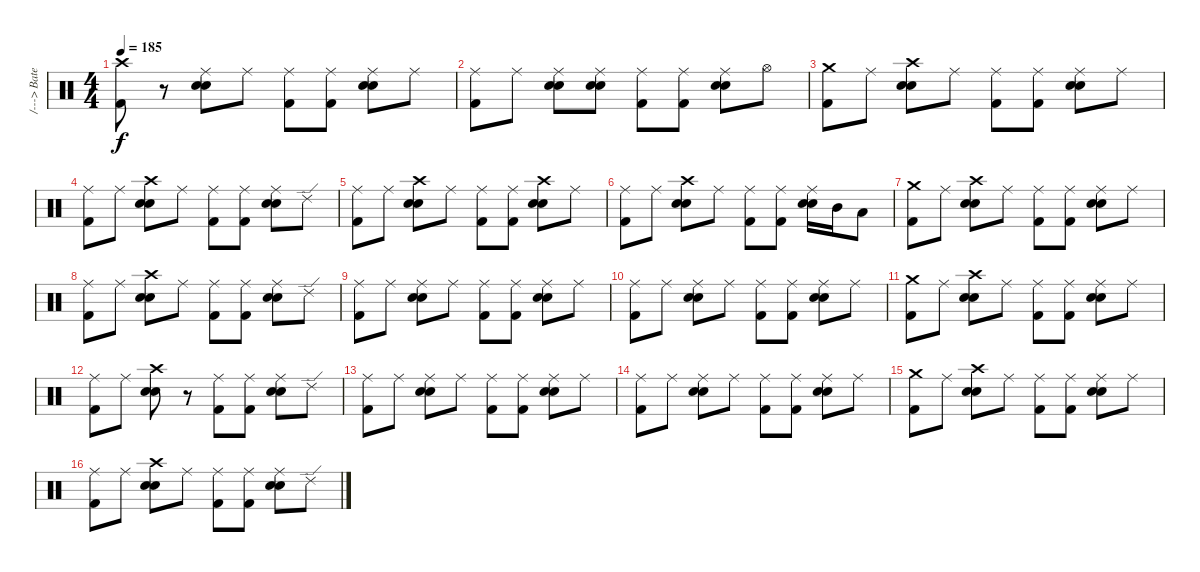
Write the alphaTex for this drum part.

\track ("/---> Bateria <----/" "/---> Bate") {instrument percussion}
\staff {score}
\articulation defaults
\ts (4 4)
\tempo 185
\clef neutral
\ks c
("Crash high (hit)" "Kick (hit) 2").8{dy f} r.8 ("Ride (middle)" "Snare (hit) 2" "Electric Snare (hit)").8 "Ride (middle)".8 ("Ride (middle)" "Kick (hit) 2").8 ("Ride (middle)" "Kick (hit) 2").8 ("Ride (middle)" "Snare (hit) 2" "Electric Snare (hit)").8 "Ride (middle)".8 |
("Ride (middle)" "Kick (hit) 2").8 "Ride (middle)".8 ("Ride (middle)" "Snare (hit) 2" "Electric Snare (hit)").8 ("Ride (middle)" "Snare (hit) 2" "Electric Snare (hit)").8 ("Ride (middle)" "Kick (hit) 2").8 ("Ride (middle)" "Kick (hit) 2").8 ("Ride (middle)" "Snare (hit) 2" "Electric Snare (hit)").8 "Hi-Hat (open)".8 |
("Crash medium (hit)" "Kick (hit) 2").8 "Ride (middle)".8 ("Crash high (hit)" "Snare (hit) 2" "Electric Snare (hit)").8 "Ride (middle)".8 ("Ride (middle)" "Kick (hit) 2").8 ("Ride (middle)" "Kick (hit) 2").8 ("Ride (middle)" "Snare (hit) 2" "Electric Snare (hit)").8 "Ride (middle)".8 |
("Ride (middle)" "Kick (hit) 2").8 "Ride (middle)".8 ("Crash high (hit)" "Snare (hit) 2" "Electric Snare (hit)").8 "Ride (middle)".8 ("Ride (middle)" "Kick (hit) 2").8 ("Ride (middle)" "Kick (hit) 2").8 ("Ride (middle)" "Snare (hit) 2" "Electric Snare (hit)").8 "Ride (edge) 2".8 |
("Ride (middle)" "Kick (hit) 2").8 "Ride (middle)".8 ("Crash high (hit)" "Snare (hit) 2" "Electric Snare (hit)").8 "Ride (middle)".8 ("Ride (middle)" "Kick (hit) 2").8 ("Ride (middle)" "Kick (hit) 2").8 ("Crash high (hit)" "Snare (hit) 2" "Electric Snare (hit)").8 "Ride (middle)".8 |
("Ride (middle)" "Kick (hit) 2").8 "Ride (middle)".8 ("Crash high (hit)" "Snare (hit) 2" "Electric Snare (hit)").8 "Ride (middle)".8 ("Ride (middle)" "Kick (hit) 2").8 ("Ride (middle)" "Kick (hit) 2").8 ("Ride (middle)" "Snare (hit) 2" "Electric Snare (hit)").16 "Mid Tom (hit)".16 "Low Tom (hit)".8 |
("Crash medium (hit)" "Kick (hit) 2").8 "Ride (middle)".8 ("Crash high (hit)" "Snare (hit) 2" "Electric Snare (hit)").8 "Ride (middle)".8 ("Ride (middle)" "Kick (hit) 2").8 ("Ride (middle)" "Kick (hit) 2").8 ("Ride (middle)" "Snare (hit) 2" "Electric Snare (hit)").8 "Ride (middle)".8 |
("Ride (middle)" "Kick (hit) 2").8 "Ride (middle)".8 ("Crash high (hit)" "Snare (hit) 2" "Electric Snare (hit)").8 "Ride (middle)".8 ("Ride (middle)" "Kick (hit) 2").8 ("Ride (middle)" "Kick (hit) 2").8 ("Ride (middle)" "Snare (hit) 2" "Electric Snare (hit)").8 "Ride (edge) 2".8 |
("Ride (middle)" "Kick (hit) 2").8 "Ride (middle)".8 ("Ride (middle)" "Snare (hit) 2" "Electric Snare (hit)").8 "Ride (middle)".8 ("Ride (middle)" "Kick (hit) 2").8 ("Ride (middle)" "Kick (hit) 2").8 ("Ride (middle)" "Snare (hit) 2" "Electric Snare (hit)").8 "Ride (middle)".8 |
("Ride (middle)" "Kick (hit) 2").8 "Ride (middle)".8 ("Ride (middle)" "Snare (hit) 2" "Electric Snare (hit)").8 "Ride (middle)".8 ("Ride (middle)" "Kick (hit) 2").8 ("Ride (middle)" "Kick (hit) 2").8 ("Ride (middle)" "Snare (hit) 2" "Electric Snare (hit)").8 "Ride (middle)".8 |
("Crash medium (hit)" "Kick (hit) 2").8 "Ride (middle)".8 ("Crash high (hit)" "Snare (hit) 2" "Electric Snare (hit)").8 "Ride (middle)".8 ("Ride (middle)" "Kick (hit) 2").8 ("Ride (middle)" "Kick (hit) 2").8 ("Ride (middle)" "Snare (hit) 2" "Electric Snare (hit)").8 "Ride (middle)".8 |
("Ride (middle)" "Kick (hit) 2").8 "Ride (middle)".8 ("Crash high (hit)" "Snare (hit) 2" "Electric Snare (hit)").8 r.8 ("Ride (middle)" "Kick (hit) 2").8 ("Ride (middle)" "Kick (hit) 2").8 ("Ride (middle)" "Snare (hit) 2" "Electric Snare (hit)").8 "Ride (edge) 2".8 |
("Ride (middle)" "Kick (hit) 2").8 "Ride (middle)".8 ("Ride (middle)" "Snare (hit) 2" "Electric Snare (hit)").8 "Ride (middle)".8 ("Ride (middle)" "Kick (hit) 2").8 ("Ride (middle)" "Kick (hit) 2").8 ("Ride (middle)" "Snare (hit) 2" "Electric Snare (hit)").8 "Ride (middle)".8 |
("Ride (middle)" "Kick (hit) 2").8 "Ride (middle)".8 ("Ride (middle)" "Snare (hit) 2" "Electric Snare (hit)").8 "Ride (middle)".8 ("Ride (middle)" "Kick (hit) 2").8 ("Ride (middle)" "Kick (hit) 2").8 ("Ride (middle)" "Snare (hit) 2" "Electric Snare (hit)").8 "Ride (middle)".8 |
("Crash medium (hit)" "Kick (hit) 2").8 "Ride (middle)".8 ("Crash high (hit)" "Snare (hit) 2" "Electric Snare (hit)").8 "Ride (middle)".8 ("Ride (middle)" "Kick (hit) 2").8 ("Ride (middle)" "Kick (hit) 2").8 ("Ride (middle)" "Snare (hit) 2" "Electric Snare (hit)").8 "Ride (middle)".8 |
("Ride (middle)" "Kick (hit) 2").8 "Ride (middle)".8 ("Crash high (hit)" "Snare (hit) 2" "Electric Snare (hit)").8 "Ride (middle)".8 ("Ride (middle)" "Kick (hit) 2").8 ("Ride (middle)" "Kick (hit) 2").8 ("Ride (middle)" "Snare (hit) 2" "Electric Snare (hit)").8 "Ride (edge) 2".8
